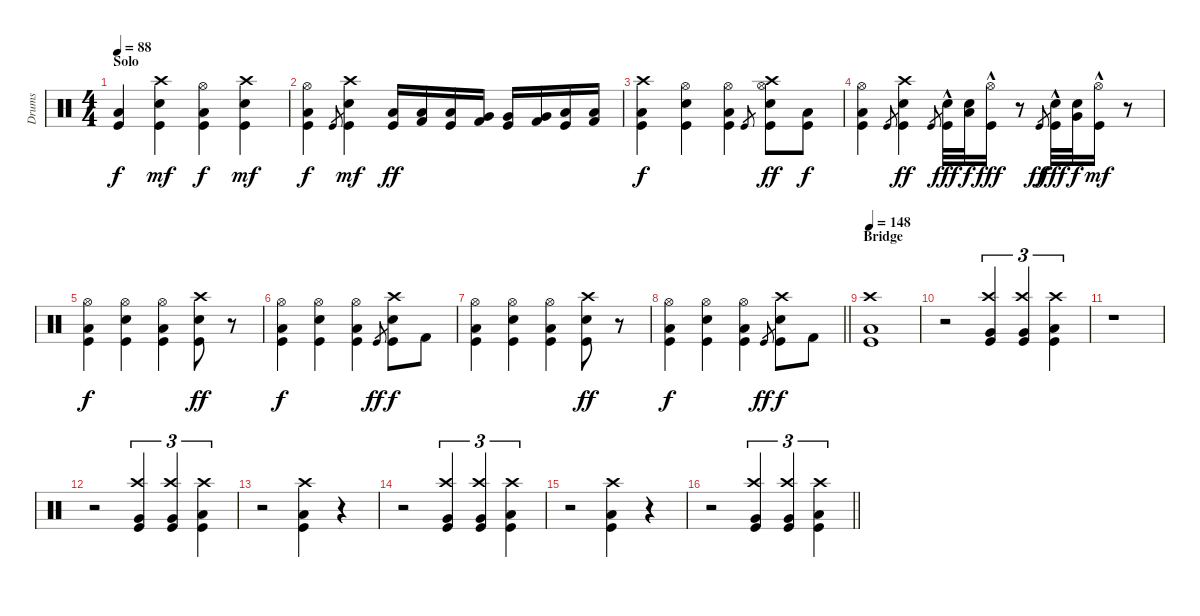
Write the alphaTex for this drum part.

\track ("Drums" "Drums") {instrument percussion}
\staff {score}
\articulation defaults
\ts (4 4)
\section ("" "Solo")
\tempo 88
\clef neutral
\ks c
("Kick (hit)" "Low Floor Tom (hit)").4{dy f} ("Kick (hit)" "Snare (hit) 2" "Crash high (hit)").4{dy mf} ("Kick (hit)" "Hi-Hat (open)" "Low Floor Tom (hit)").4{dy f} ("Kick (hit)" "Snare (hit) 2" "Crash high (hit)").4{dy mf} |
("Kick (hit)" "Hi-Hat (open)" "Low Floor Tom (hit)").4{dy f} "Kick (hit)".8{gr} ("Kick (hit)" "Snare (hit) 2" "Crash high (hit)").4{dy mf} ("Kick (hit)" "Low Tom (hit)").16{dy ff} ("Kick (hit) 2" "Low Tom (hit)").16 ("Kick (hit)" "Low Tom (hit)").16 ("Kick (hit) 2" "Very Low Tom (hit)").16 ("Kick (hit)" "Very Low Tom (hit)").16 ("Kick (hit) 2" "Very Low Tom (hit)").16 ("Kick (hit)" "Low Floor Tom (hit)").16 ("Kick (hit) 2" "Low Floor Tom (hit)").16 |
("Kick (hit)" "Crash high (hit)" "Low Floor Tom (hit)").4{dy f} ("Kick (hit)" "Snare (hit) 2" "Hi-Hat (open)").4 ("Kick (hit)" "Hi-Hat (open)" "Low Floor Tom (hit)").4 "Kick (hit)".8{gr} ("Kick (hit)" "Snare (hit) 2" "Hi-Hat (open)" "Crash high (hit)").8{dy ff} ("Kick (hit)" "Low Floor Tom (hit)").8{dy f} |
("Kick (hit)" "Hi-Hat (open)" "Low Floor Tom (hit)").4 "Kick (hit)".8{gr} ("Kick (hit)" "Snare (hit) 2" "Crash high (hit)").4{dy ff} "Kick (hit)".8{gr} ("Kick (hit)"{hac} "Electric Snare (hit)").32{dy fff} ("Snare (hit) 2" "Low Tom (hit)").32{dy f} ("Kick (hit)"{hac} "Hi-Hat (open)").16{dy fff} r.8 "Kick (hit)".8{gr dy ff} ("Kick (hit)"{hac} "Electric Snare (hit)").32{dy fff} ("Snare (hit) 2" "Very Low Tom (hit)").32{dy f} ("Kick (hit)"{hac} "Hi-Hat (open)").16{dy mf} r.8 |
("Kick (hit)" "Hi-Hat (open)" "Low Floor Tom (hit)").4{dy f} ("Kick (hit)" "Snare (hit) 2" "Hi-Hat (open)").4 ("Kick (hit)" "Hi-Hat (open)" "Low Floor Tom (hit)").4 ("Kick (hit)" "Snare (hit) 2" "Crash high (hit)").8{dy ff} r.8 |
("Kick (hit)" "Hi-Hat (open)" "Low Floor Tom (hit)").4{dy f} ("Kick (hit)" "Snare (hit) 2" "Hi-Hat (open)").4 ("Kick (hit)" "Hi-Hat (open)" "Low Floor Tom (hit)").4 "Kick (hit)".8{gr dy ff} ("Kick (hit)" "Snare (hit) 2" "Crash high (hit)").8{dy f} "Kick (hit) 2".8 |
("Kick (hit)" "Hi-Hat (open)" "Low Floor Tom (hit)").4 ("Kick (hit)" "Snare (hit) 2" "Hi-Hat (open)").4 ("Kick (hit)" "Hi-Hat (open)" "Low Floor Tom (hit)").4 ("Kick (hit)" "Snare (hit) 2" "Crash high (hit)").8{dy ff} r.8 |
\barLineRight lightlight
("Kick (hit)" "Hi-Hat (open)" "Low Floor Tom (hit)").4{dy f} ("Kick (hit)" "Snare (hit) 2" "Hi-Hat (open)").4 ("Kick (hit)" "Hi-Hat (open)" "Low Floor Tom (hit)").4 "Kick (hit)".8{gr dy ff} ("Kick (hit)" "Snare (hit) 2" "Crash high (hit)").8{dy f} "Kick (hit) 2".8 |
\section ("" "Bridge")
\tempo 148
("Kick (hit)" "Crash high (hit)" "Low Floor Tom (hit)").1 |
r.2 ("Kick (hit)" "Crash high (hit)" "Very Low Tom (hit)").4{tu (3 2)} ("Kick (hit)" "Crash high (hit)" "Very Low Tom (hit)").4{tu (3 2)} ("Kick (hit)" "Crash high (hit)" "Low Floor Tom (hit)").4{tu (3 2)} |
r.1 |
r.2 ("Kick (hit)" "Crash high (hit)" "Very Low Tom (hit)").4{tu (3 2)} ("Kick (hit)" "Crash high (hit)" "Very Low Tom (hit)").4{tu (3 2)} ("Kick (hit)" "Crash high (hit)" "Low Floor Tom (hit)").4{tu (3 2)} |
r.2 ("Kick (hit)" "Crash high (hit)" "Low Floor Tom (hit)").4 r.4 |
r.2 ("Kick (hit)" "Crash high (hit)" "Very Low Tom (hit)").4{tu (3 2)} ("Kick (hit)" "Crash high (hit)" "Very Low Tom (hit)").4{tu (3 2)} ("Kick (hit)" "Crash high (hit)" "Low Floor Tom (hit)").4{tu (3 2)} |
r.2 ("Kick (hit)" "Crash high (hit)" "Low Floor Tom (hit)").4 r.4 |
\barLineRight lightlight
r.2 ("Kick (hit)" "Crash high (hit)" "Very Low Tom (hit)").4{tu (3 2)} ("Kick (hit)" "Crash high (hit)" "Very Low Tom (hit)").4{tu (3 2)} ("Kick (hit)" "Crash high (hit)" "Low Floor Tom (hit)").4{tu (3 2)}
